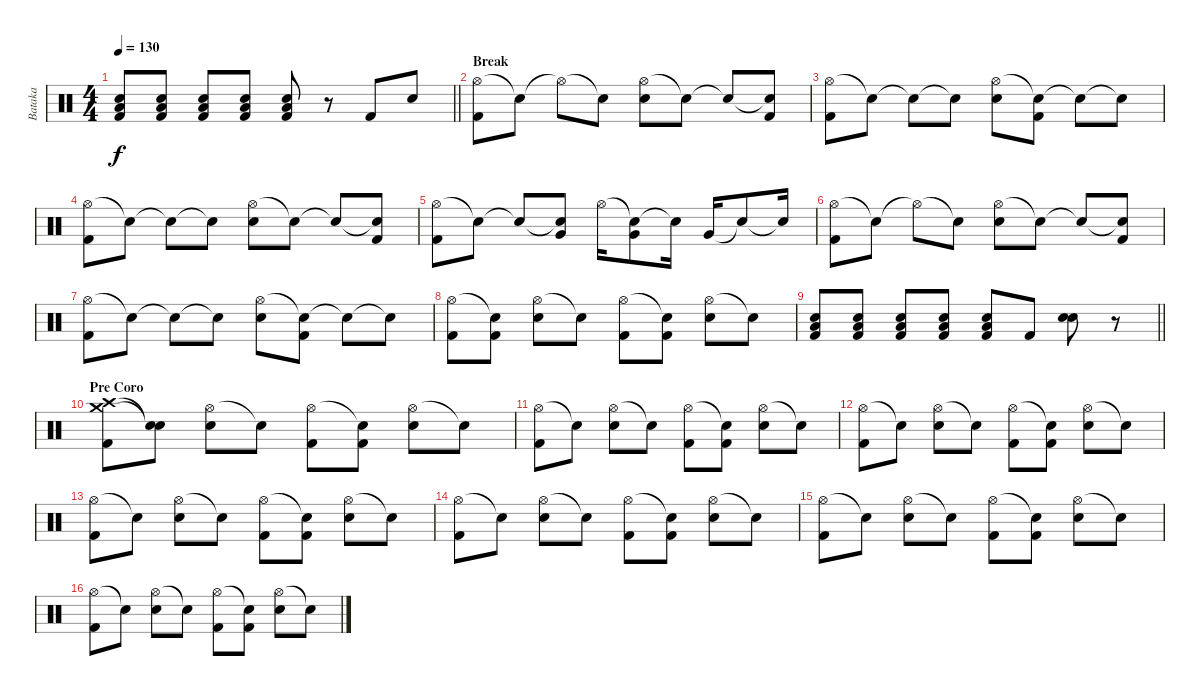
\track ("Bataka" "Bataka") {instrument percussion}
\staff {score}
\articulation defaults
\ts (4 4)
\tempo 130
\clef neutral
\barLineRight lightlight
\ks c
("Low Floor Tom (hit)" "Electric Snare (hit)" "Kick (hit) 2").8{dy f volume 14} ("Low Floor Tom (hit)" "Electric Snare (hit)" "Kick (hit) 2").8 ("Low Floor Tom (hit)" "Electric Snare (hit)" "Kick (hit) 2").8 ("Low Floor Tom (hit)" "Electric Snare (hit)" "Kick (hit) 2").8 ("Low Floor Tom (hit)" "Electric Snare (hit)" "Kick (hit) 2").8 r.8 "Kick (hit) 2".8 "Electric Snare (hit)".8 |
\section ("" "Break")
("Hi-Hat (open)" "Kick (hit) 2").8 "Snare (hit)"{t}.8 "Hi-Hat (open)"{t}.8 "Snare (hit)"{t}.8 ("Hi-Hat (open)" "Electric Snare (hit)").8 "Snare (hit)"{t}.8 "Snare (hit)"{t}.8 ("Snare (hit)"{t} "Kick (hit) 2").8 |
("Hi-Hat (open)" "Kick (hit) 2").8 "Snare (hit)"{t}.8 "Snare (hit)"{t}.8 "Snare (hit)"{t}.8 ("Hi-Hat (open)" "Electric Snare (hit)").8 ("Snare (hit)"{t} "Kick (hit) 2").8 "Snare (hit)"{t}.8 "Snare (hit)"{t}.8 |
("Hi-Hat (open)" "Kick (hit) 2").8 "Snare (hit)"{t}.8 "Snare (hit)"{t}.8 "Snare (hit)"{t}.8 ("Hi-Hat (open)" "Electric Snare (hit)").8 "Snare (hit)"{t}.8 "Snare (hit)"{t}.8 ("Snare (hit)"{t} "Kick (hit) 2").8 |
("Hi-Hat (open)" "Kick (hit) 2").8 "Snare (hit)"{t}.8 "Snare (hit)"{t}.8 ("Snare (hit)"{t} "Very Low Tom (hit)").8 "Hi-Hat (open)".16 ("Snare (hit)"{t} "Very Low Tom (hit)").8 "Snare (hit)"{t}.16 "Very Low Tom (hit)".16 "Snare (hit)"{t}.8 "Snare (hit)"{t}.16 |
("Hi-Hat (open)" "Kick (hit) 2").8 "Snare (hit)"{t}.8 "Hi-Hat (open)"{t}.8 "Snare (hit)"{t}.8 ("Hi-Hat (open)" "Electric Snare (hit)").8 "Snare (hit)"{t}.8 "Snare (hit)"{t}.8 ("Snare (hit)"{t} "Kick (hit) 2").8 |
("Hi-Hat (open)" "Kick (hit) 2").8 "Snare (hit)"{t}.8 "Snare (hit)"{t}.8 "Snare (hit)"{t}.8 ("Hi-Hat (open)" "Electric Snare (hit)").8 ("Snare (hit)"{t} "Kick (hit) 2").8 "Snare (hit)"{t}.8 "Snare (hit)"{t}.8 |
("Hi-Hat (open)" "Kick (hit) 2").8 ("Snare (hit)"{t} "Kick (hit) 2").8 ("Hi-Hat (open)" "Electric Snare (hit)").8 "Snare (hit)"{t}.8 ("Hi-Hat (open)" "Kick (hit) 2").8 ("Snare (hit)"{t} "Kick (hit) 2").8 ("Hi-Hat (open)" "Electric Snare (hit)").8 "Snare (hit)"{t}.8 |
\barLineRight lightlight
("Low Floor Tom (hit)" "Electric Snare (hit)" "Kick (hit) 2").8 ("Low Floor Tom (hit)" "Electric Snare (hit)" "Kick (hit) 2").8 ("Low Floor Tom (hit)" "Electric Snare (hit)" "Kick (hit) 2").8 ("Low Floor Tom (hit)" "Electric Snare (hit)" "Kick (hit) 2").8 ("Low Floor Tom (hit)" "Electric Snare (hit)" "Kick (hit) 2").8 "Kick (hit) 2".8 ("Electric Snare (hit)" "Electric Snare (hit)").8 r.8 |
\section ("" "Pre Coro")
("Crash medium (hit)" "Crash high (hit)" "Kick (hit) 2").8 ("Snare (hit)"{t} "Snare (hit)"{t}).8 ("Hi-Hat (open)" "Electric Snare (hit)").8 "Snare (hit)"{t}.8 ("Hi-Hat (open)" "Kick (hit) 2").8 ("Snare (hit)"{t} "Kick (hit) 2").8 ("Hi-Hat (open)" "Electric Snare (hit)").8 "Snare (hit)"{t}.8 |
("Hi-Hat (open)" "Kick (hit) 2").8 "Snare (hit)"{t}.8 ("Hi-Hat (open)" "Electric Snare (hit)").8 "Snare (hit)"{t}.8 ("Hi-Hat (open)" "Kick (hit) 2").8 ("Snare (hit)"{t} "Kick (hit) 2").8 ("Hi-Hat (open)" "Electric Snare (hit)").8 "Snare (hit)"{t}.8 |
("Hi-Hat (open)" "Kick (hit) 2").8 "Snare (hit)"{t}.8 ("Hi-Hat (open)" "Electric Snare (hit)").8 "Snare (hit)"{t}.8 ("Hi-Hat (open)" "Kick (hit) 2").8 ("Snare (hit)"{t} "Kick (hit) 2").8 ("Hi-Hat (open)" "Electric Snare (hit)").8 "Snare (hit)"{t}.8 |
("Hi-Hat (open)" "Kick (hit) 2").8 "Snare (hit)"{t}.8 ("Hi-Hat (open)" "Electric Snare (hit)").8 "Snare (hit)"{t}.8 ("Hi-Hat (open)" "Kick (hit) 2").8 ("Snare (hit)"{t} "Kick (hit) 2").8 ("Hi-Hat (open)" "Electric Snare (hit)").8 "Snare (hit)"{t}.8 |
("Hi-Hat (open)" "Kick (hit) 2").8 "Snare (hit)"{t}.8 ("Hi-Hat (open)" "Electric Snare (hit)").8 "Snare (hit)"{t}.8 ("Hi-Hat (open)" "Kick (hit) 2").8 ("Snare (hit)"{t} "Kick (hit) 2").8 ("Hi-Hat (open)" "Electric Snare (hit)").8 "Snare (hit)"{t}.8 |
("Hi-Hat (open)" "Kick (hit) 2").8 "Snare (hit)"{t}.8 ("Hi-Hat (open)" "Electric Snare (hit)").8 "Snare (hit)"{t}.8 ("Hi-Hat (open)" "Kick (hit) 2").8 ("Snare (hit)"{t} "Kick (hit) 2").8 ("Hi-Hat (open)" "Electric Snare (hit)").8 "Snare (hit)"{t}.8 |
("Hi-Hat (open)" "Kick (hit) 2").8 "Snare (hit)"{t}.8 ("Hi-Hat (open)" "Electric Snare (hit)").8 "Snare (hit)"{t}.8 ("Hi-Hat (open)" "Kick (hit) 2").8 ("Snare (hit)"{t} "Kick (hit) 2").8 ("Hi-Hat (open)" "Electric Snare (hit)").8 "Snare (hit)"{t}.8
